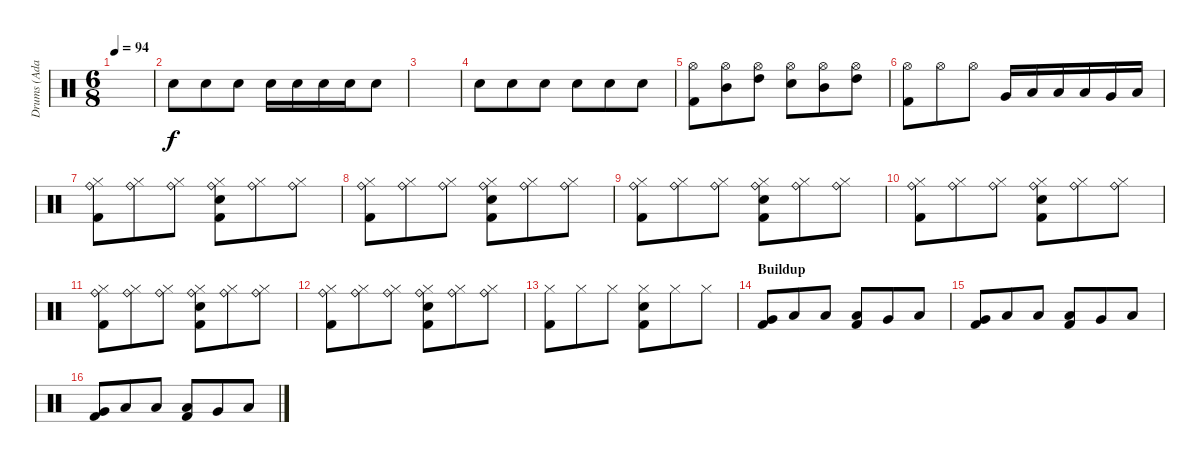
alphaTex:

\track ("Drums (Adam)" "Drums (Ada") {instrument percussion}
\staff {score}
\articulation defaults
\ts (6 8)
\tempo 94
\clef neutral
\ks c
|
"Snare (hit) 2".8 "Snare (hit) 2".8 "Snare (hit) 2".8 "Snare (hit) 2".16 "Snare (hit) 2".16 "Snare (hit) 2".16 "Snare (hit) 2".16 "Snare (hit) 2".8 |
|
"Snare (hit) 2".8 "Snare (hit) 2".8 "Snare (hit) 2".8 "Snare (hit) 2".8 "Snare (hit) 2".8 "Snare (hit) 2".8 |
("Hi-Hat (open)" "Kick (hit) 2").8 ("Hi-Hat (open)" "Mid Tom (hit)").8 ("Hi-Hat (open)" "High Tom (hit)").8 ("Hi-Hat (open)" "Snare (hit) 2").8 ("Hi-Hat (open)" "Mid Tom (hit)").8 ("Hi-Hat (open)" "High Tom (hit)").8 |
("Hi-Hat (open)" "Kick (hit) 2").8 "Hi-Hat (open)".8 "Hi-Hat (open)".8 "Very Low Tom (hit)".16 "Low Floor Tom (hit)".16 "Low Tom (hit)".16 "Low Floor Tom (hit)".16 "Very Low Tom (hit)".16 "Low Floor Tom (hit)".16 |
("Ride (bell)" "Hi-Hat (closed)" "Kick (hit) 2").8 ("Ride (bell)" "Hi-Hat (closed)").8 ("Ride (bell)" "Hi-Hat (closed)").8 ("Ride (bell)" "Hi-Hat (closed)" "Snare (hit) 2" "Kick (hit) 2").8 ("Ride (bell)" "Hi-Hat (closed)").8 ("Ride (bell)" "Hi-Hat (closed)").8 |
("Ride (bell)" "Hi-Hat (closed)" "Kick (hit) 2").8 ("Ride (bell)" "Hi-Hat (closed)").8 ("Ride (bell)" "Hi-Hat (closed)").8 ("Ride (bell)" "Hi-Hat (closed)" "Snare (hit) 2" "Kick (hit) 2").8 ("Ride (bell)" "Hi-Hat (closed)").8 ("Ride (bell)" "Hi-Hat (closed)").8 |
("Ride (bell)" "Hi-Hat (closed)" "Kick (hit) 2").8 ("Ride (bell)" "Hi-Hat (closed)").8 ("Ride (bell)" "Hi-Hat (closed)").8 ("Ride (bell)" "Hi-Hat (closed)" "Snare (hit) 2" "Kick (hit) 2").8 ("Ride (bell)" "Hi-Hat (closed)").8 ("Ride (bell)" "Hi-Hat (closed)").8 |
("Ride (bell)" "Hi-Hat (closed)" "Kick (hit) 2").8 ("Ride (bell)" "Hi-Hat (closed)").8 ("Ride (bell)" "Hi-Hat (closed)").8 ("Ride (bell)" "Hi-Hat (closed)" "Snare (hit) 2" "Kick (hit) 2").8 ("Ride (bell)" "Hi-Hat (closed)").8 ("Ride (bell)" "Hi-Hat (closed)").8 |
("Ride (bell)" "Hi-Hat (closed)" "Kick (hit) 2").8 ("Ride (bell)" "Hi-Hat (closed)").8 ("Ride (bell)" "Hi-Hat (closed)").8 ("Ride (bell)" "Hi-Hat (closed)" "Snare (hit) 2" "Kick (hit) 2").8 ("Ride (bell)" "Hi-Hat (closed)").8 ("Ride (bell)" "Hi-Hat (closed)").8 |
("Ride (bell)" "Hi-Hat (closed)" "Kick (hit) 2").8 ("Ride (bell)" "Hi-Hat (closed)").8 ("Ride (bell)" "Hi-Hat (closed)").8 ("Ride (bell)" "Hi-Hat (closed)" "Snare (hit) 2" "Kick (hit) 2").8 ("Ride (bell)" "Hi-Hat (closed)").8 ("Ride (bell)" "Hi-Hat (closed)").8 |
("Hi-Hat (closed)" "Kick (hit) 2").8 "Hi-Hat (closed)".8 "Hi-Hat (closed)".8 ("Hi-Hat (closed)" "Snare (hit) 2" "Kick (hit) 2").8 "Hi-Hat (closed)".8 "Hi-Hat (closed)".8 |
\section ("" "Buildup")
("Very Low Tom (hit)" "Kick (hit) 2").8 "Low Floor Tom (hit)".8 "Low Tom (hit)".8 ("Low Floor Tom (hit)" "Kick (hit) 2").8 "Very Low Tom (hit)".8 "Low Floor Tom (hit)".8 |
("Very Low Tom (hit)" "Kick (hit) 2").8 "Low Floor Tom (hit)".8 "Low Tom (hit)".8 ("Low Floor Tom (hit)" "Kick (hit) 2").8 "Very Low Tom (hit)".8 "Low Floor Tom (hit)".8 |
("Very Low Tom (hit)" "Kick (hit) 2").8 "Low Floor Tom (hit)".8 "Low Tom (hit)".8 ("Low Floor Tom (hit)" "Kick (hit) 2").8 "Very Low Tom (hit)".8 "Low Floor Tom (hit)".8
